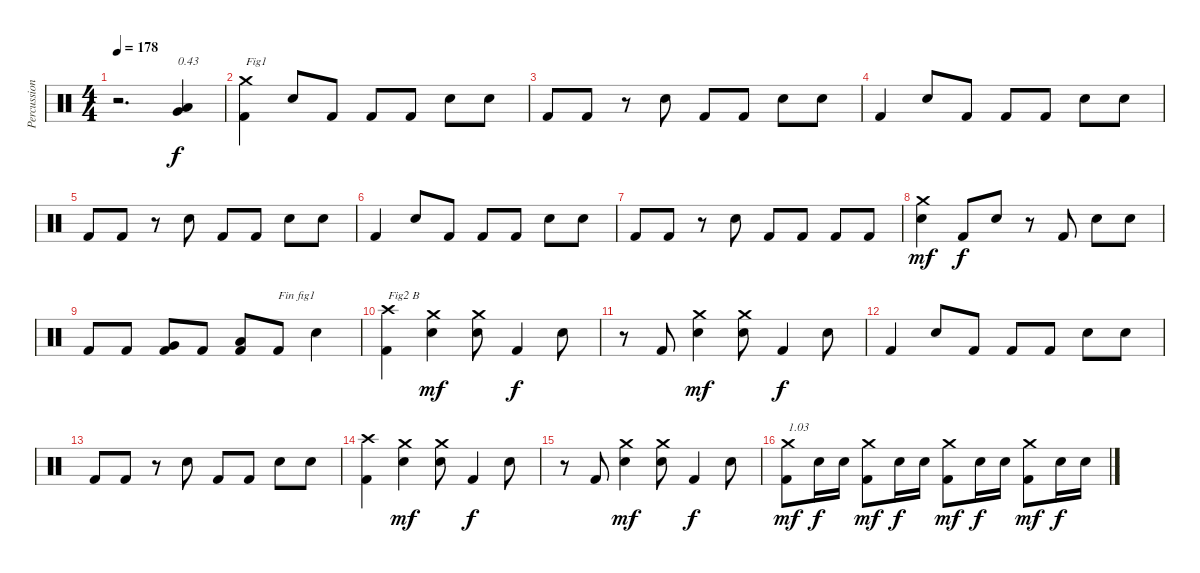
\track ("Percussions" "Percussion") {instrument percussion}
\staff {score}
\articulation defaults
\ts (4 4)
\tempo 178
\clef neutral
\ks c
r.2{d dy f} ("Low Floor Tom (hit)" "Very Low Tom (hit)").4{txt "0.43"} |
("Kick (hit) 2" "Crash medium (hit)").4{txt "Fig1"} "Electric Snare (hit)".8 "Kick (hit) 2".8 "Kick (hit) 2".8 "Kick (hit) 2".8 "Electric Snare (hit)".8 "Electric Snare (hit)".8 |
"Kick (hit) 2".8 "Kick (hit) 2".8 r.8 "Electric Snare (hit)".8 "Kick (hit) 2".8 "Kick (hit) 2".8 "Electric Snare (hit)".8 "Electric Snare (hit)".8 |
"Kick (hit) 2".4 "Electric Snare (hit)".8 "Kick (hit) 2".8 "Kick (hit) 2".8 "Kick (hit) 2".8 "Electric Snare (hit)".8 "Electric Snare (hit)".8 |
"Kick (hit) 2".8 "Kick (hit) 2".8 r.8 "Electric Snare (hit)".8 "Kick (hit) 2".8 "Kick (hit) 2".8 "Electric Snare (hit)".8 "Electric Snare (hit)".8 |
"Kick (hit) 2".4 "Electric Snare (hit)".8 "Kick (hit) 2".8 "Kick (hit) 2".8 "Kick (hit) 2".8 "Electric Snare (hit)".8 "Electric Snare (hit)".8 |
"Kick (hit) 2".8 "Kick (hit) 2".8 r.8 "Electric Snare (hit)".8 "Kick (hit) 2".8 "Kick (hit) 2".8 "Kick (hit) 2".8 "Kick (hit) 2".8 |
("Electric Snare (hit)" "Crash medium (hit)").4{dy mf} "Kick (hit) 2".8{dy f} "Electric Snare (hit)".8 r.8 "Kick (hit) 2".8 "Electric Snare (hit)".8 "Electric Snare (hit)".8 |
"Kick (hit) 2".8 "Kick (hit) 2".8 ("Kick (hit) 2" "Very Low Tom (hit)").8 "Kick (hit) 2".8 ("Kick (hit) 2" "Low Floor Tom (hit)").8 "Kick (hit) 2".8{txt "Fin fig1"} "Electric Snare (hit)".4 |
("Kick (hit) 2" "Crash high (hit)").4{txt "Fig2 B"} ("Electric Snare (hit)" "Crash medium (hit)").4{dy mf} ("Electric Snare (hit)" "Crash medium (hit)").8 "Kick (hit) 2".4{dy f} "Electric Snare (hit)".8 |
r.8 "Kick (hit) 2".8 ("Electric Snare (hit)" "Crash medium (hit)").4{dy mf} ("Electric Snare (hit)" "Crash medium (hit)").8 "Kick (hit) 2".4{dy f} "Electric Snare (hit)".8 |
"Kick (hit) 2".4 "Electric Snare (hit)".8 "Kick (hit) 2".8 "Kick (hit) 2".8 "Kick (hit) 2".8 "Electric Snare (hit)".8 "Electric Snare (hit)".8 |
"Kick (hit) 2".8 "Kick (hit) 2".8 r.8 "Electric Snare (hit)".8 "Kick (hit) 2".8 "Kick (hit) 2".8 "Electric Snare (hit)".8 "Electric Snare (hit)".8 |
("Kick (hit) 2" "Crash high (hit)").4 ("Electric Snare (hit)" "Crash medium (hit)").4{dy mf} ("Electric Snare (hit)" "Crash medium (hit)").8 "Kick (hit) 2".4{dy f} "Electric Snare (hit)".8 |
r.8 "Kick (hit) 2".8 ("Electric Snare (hit)" "Crash medium (hit)").4{dy mf} ("Electric Snare (hit)" "Crash medium (hit)").8 "Kick (hit) 2".4{dy f} "Electric Snare (hit)".8 |
("Kick (hit) 2" "Crash medium (hit)").8{txt "1.03" dy mf} "Electric Snare (hit)".16{dy f} "Electric Snare (hit)".16 ("Kick (hit) 2" "Crash medium (hit)").8{dy mf} "Electric Snare (hit)".16{dy f} "Electric Snare (hit)".16 ("Kick (hit) 2" "Crash medium (hit)").8{dy mf} "Electric Snare (hit)".16{dy f} "Electric Snare (hit)".16 ("Kick (hit) 2" "Crash medium (hit)").8{dy mf} "Electric Snare (hit)".16{dy f} "Electric Snare (hit)".16
